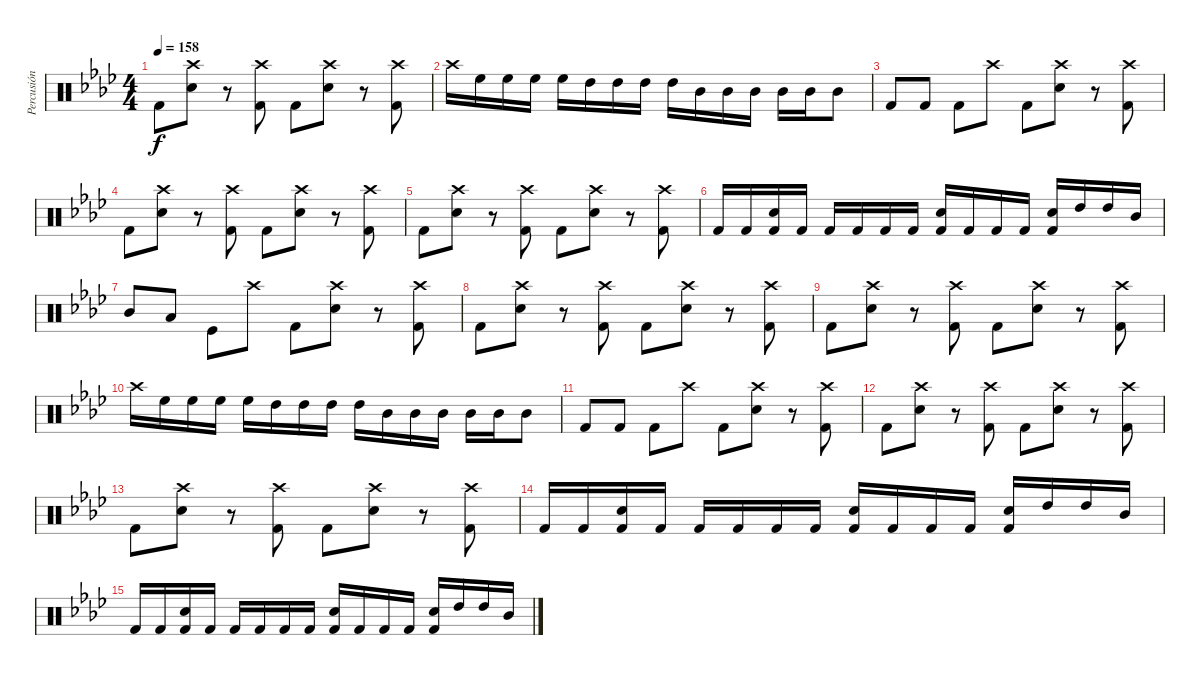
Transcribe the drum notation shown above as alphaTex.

\track ("Percusión" "Percusión") {instrument percussion}
\staff {score}
\articulation defaults
\ts (4 4)
\tempo 158
\clef neutral
\ks ab "Kick (hit) 2".8{dy f}
("Crash high (hit)" "Snare (hit) 2").8 r.8 ("Crash high (hit)" "Kick (hit) 2").8 "Kick (hit) 2".8 ("Crash high (hit)" "Snare (hit) 2").8 r.8 ("Crash high (hit)" "Kick (hit) 2").8 |
"Crash high (hit)".16 "High Floor Tom (hit)".16 "High Floor Tom (hit)".16 "High Floor Tom (hit)".16 "High Floor Tom (hit)".16 "High Tom (hit)".16 "High Tom (hit)".16 "High Tom (hit)".16 "High Tom (hit)".16 "Mid Tom (hit)".16 "Mid Tom (hit)".16 "Mid Tom (hit)".16 "Mid Tom (hit)".16 "Mid Tom (hit)".16 "Mid Tom (hit)".8 |
"Kick (hit) 2".8 "Kick (hit) 2".8 "Kick (hit) 2".8 "Crash high (hit)".8 "Kick (hit) 2".8 ("Crash high (hit)" "Snare (hit) 2").8 r.8 ("Crash high (hit)" "Kick (hit) 2").8 |
"Kick (hit) 2".8 ("Crash high (hit)" "Snare (hit) 2").8 r.8 ("Crash high (hit)" "Kick (hit) 2").8 "Kick (hit) 2".8 ("Crash high (hit)" "Snare (hit) 2").8 r.8 ("Crash high (hit)" "Kick (hit) 2").8 |
"Kick (hit) 2".8 ("Crash high (hit)" "Snare (hit) 2").8 r.8 ("Crash high (hit)" "Kick (hit) 2").8 "Kick (hit) 2".8 ("Crash high (hit)" "Snare (hit) 2").8 r.8 ("Crash high (hit)" "Kick (hit) 2").8 |
"Kick (hit) 2".16 "Kick (hit) 2".16 ("Snare (hit) 2" "Kick (hit) 2").16 "Kick (hit) 2".16 "Kick (hit) 2".16 "Kick (hit) 2".16 "Kick (hit) 2".16 "Kick (hit) 2".16 ("Snare (hit) 2" "Kick (hit) 2").16 "Kick (hit) 2".16 "Kick (hit) 2".16 "Kick (hit) 2".16 ("Snare (hit) 2" "Kick (hit) 2").16 "High Tom (hit)".16 "High Tom (hit)".16 "Mid Tom (hit)".16 |
"Mid Tom (hit)".8 "Low Tom (hit)".8 "Kick (hit)".8 "Crash high (hit)".8 "Kick (hit) 2".8 ("Crash high (hit)" "Snare (hit) 2").8 r.8 ("Crash high (hit)" "Kick (hit) 2").8 |
"Kick (hit) 2".8 ("Crash high (hit)" "Snare (hit) 2").8 r.8 ("Crash high (hit)" "Kick (hit) 2").8 "Kick (hit) 2".8 ("Crash high (hit)" "Snare (hit) 2").8 r.8 ("Crash high (hit)" "Kick (hit) 2").8 |
"Kick (hit) 2".8 ("Crash high (hit)" "Snare (hit) 2").8 r.8 ("Crash high (hit)" "Kick (hit) 2").8 "Kick (hit) 2".8 ("Crash high (hit)" "Snare (hit) 2").8 r.8 ("Crash high (hit)" "Kick (hit) 2").8 |
"Crash high (hit)".16 "High Floor Tom (hit)".16 "High Floor Tom (hit)".16 "High Floor Tom (hit)".16 "High Floor Tom (hit)".16 "High Tom (hit)".16 "High Tom (hit)".16 "High Tom (hit)".16 "High Tom (hit)".16 "Mid Tom (hit)".16 "Mid Tom (hit)".16 "Mid Tom (hit)".16 "Mid Tom (hit)".16 "Mid Tom (hit)".16 "Mid Tom (hit)".8 |
"Kick (hit) 2".8 "Kick (hit) 2".8 "Kick (hit) 2".8 "Crash high (hit)".8 "Kick (hit) 2".8 ("Crash high (hit)" "Snare (hit) 2").8 r.8 ("Crash high (hit)" "Kick (hit) 2").8 |
"Kick (hit) 2".8 ("Crash high (hit)" "Snare (hit) 2").8 r.8 ("Crash high (hit)" "Kick (hit) 2").8 "Kick (hit) 2".8 ("Crash high (hit)" "Snare (hit) 2").8 r.8 ("Crash high (hit)" "Kick (hit) 2").8 |
"Kick (hit) 2".8 ("Crash high (hit)" "Snare (hit) 2").8 r.8 ("Crash high (hit)" "Kick (hit) 2").8 "Kick (hit) 2".8 ("Crash high (hit)" "Snare (hit) 2").8 r.8 ("Crash high (hit)" "Kick (hit) 2").8 |
"Kick (hit) 2".16 "Kick (hit) 2".16 ("Snare (hit) 2" "Kick (hit) 2").16 "Kick (hit) 2".16 "Kick (hit) 2".16 "Kick (hit) 2".16 "Kick (hit) 2".16 "Kick (hit) 2".16 ("Snare (hit) 2" "Kick (hit) 2").16 "Kick (hit) 2".16 "Kick (hit) 2".16 "Kick (hit) 2".16 ("Snare (hit) 2" "Kick (hit) 2").16 "High Tom (hit)".16 "High Tom (hit)".16 "Mid Tom (hit)".16 |
"Kick (hit) 2".16 "Kick (hit) 2".16 ("Snare (hit) 2" "Kick (hit) 2").16 "Kick (hit) 2".16 "Kick (hit) 2".16 "Kick (hit) 2".16 "Kick (hit) 2".16 "Kick (hit) 2".16 ("Snare (hit) 2" "Kick (hit) 2").16 "Kick (hit) 2".16 "Kick (hit) 2".16 "Kick (hit) 2".16 ("Snare (hit) 2" "Kick (hit) 2").16 "High Tom (hit)".16 "High Tom (hit)".16 "Mid Tom (hit)".16
